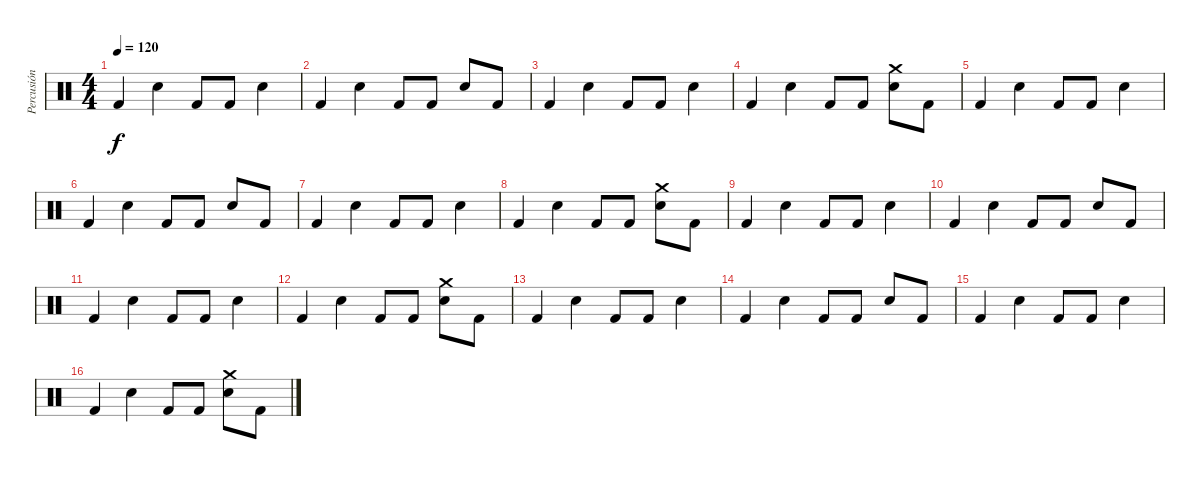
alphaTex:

\track ("Percusión" "Percusión") {instrument percussion}
\staff {score}
\articulation defaults
\ts (4 4)
\tempo 120
\clef neutral
\ks c "Kick (hit) 2".4{dy f} "Electric Snare (hit)".4 "Kick (hit) 2".8 "Kick (hit) 2".8 "Electric Snare (hit)".4
|
"Kick (hit) 2".4 "Electric Snare (hit)".4 "Kick (hit) 2".8 "Kick (hit) 2".8 "Electric Snare (hit)".8 "Kick (hit) 2".8 |
"Kick (hit) 2".4 "Electric Snare (hit)".4 "Kick (hit) 2".8 "Kick (hit) 2".8 "Electric Snare (hit)".4 |
"Kick (hit) 2".4 "Electric Snare (hit)".4 "Kick (hit) 2".8 "Kick (hit) 2".8 ("Crash medium (hit)" "Electric Snare (hit)").8 "Kick (hit) 2".8 |
"Kick (hit) 2".4 "Electric Snare (hit)".4 "Kick (hit) 2".8 "Kick (hit) 2".8 "Electric Snare (hit)".4 |
"Kick (hit) 2".4 "Electric Snare (hit)".4 "Kick (hit) 2".8 "Kick (hit) 2".8 "Electric Snare (hit)".8 "Kick (hit) 2".8 |
"Kick (hit) 2".4 "Electric Snare (hit)".4 "Kick (hit) 2".8 "Kick (hit) 2".8 "Electric Snare (hit)".4 |
"Kick (hit) 2".4 "Electric Snare (hit)".4 "Kick (hit) 2".8 "Kick (hit) 2".8 ("Crash medium (hit)" "Electric Snare (hit)").8 "Kick (hit) 2".8 |
"Kick (hit) 2".4 "Electric Snare (hit)".4 "Kick (hit) 2".8 "Kick (hit) 2".8 "Electric Snare (hit)".4 |
"Kick (hit) 2".4 "Electric Snare (hit)".4 "Kick (hit) 2".8 "Kick (hit) 2".8 "Electric Snare (hit)".8 "Kick (hit) 2".8 |
"Kick (hit) 2".4 "Electric Snare (hit)".4 "Kick (hit) 2".8 "Kick (hit) 2".8 "Electric Snare (hit)".4 |
"Kick (hit) 2".4 "Electric Snare (hit)".4 "Kick (hit) 2".8 "Kick (hit) 2".8 ("Crash medium (hit)" "Electric Snare (hit)").8 "Kick (hit) 2".8 |
"Kick (hit) 2".4 "Electric Snare (hit)".4 "Kick (hit) 2".8 "Kick (hit) 2".8 "Electric Snare (hit)".4 |
"Kick (hit) 2".4 "Electric Snare (hit)".4 "Kick (hit) 2".8 "Kick (hit) 2".8 "Electric Snare (hit)".8 "Kick (hit) 2".8 |
"Kick (hit) 2".4 "Electric Snare (hit)".4 "Kick (hit) 2".8 "Kick (hit) 2".8 "Electric Snare (hit)".4 |
"Kick (hit) 2".4 "Electric Snare (hit)".4 "Kick (hit) 2".8 "Kick (hit) 2".8 ("Crash medium (hit)" "Electric Snare (hit)").8 "Kick (hit) 2".8
